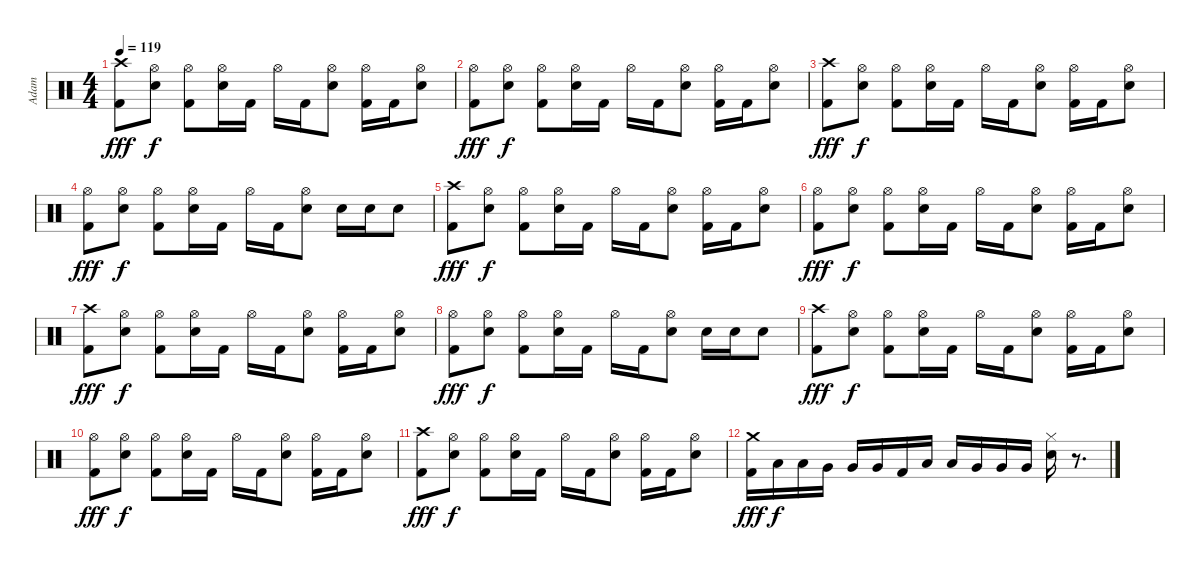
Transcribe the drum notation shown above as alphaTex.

\track ("Adam" "Adam") {instrument percussion}
\staff {score}
\articulation defaults
\ts (4 4)
\tempo 119
\clef neutral
\ks c
("Crash high (hit)" "Kick (hit) 2").8{dy fff} ("Hi-Hat (open)" "Electric Snare (hit)").8{dy f} ("Hi-Hat (open)" "Kick (hit) 2").8 ("Hi-Hat (open)" "Electric Snare (hit)").16 "Kick (hit) 2".16 "Hi-Hat (open)".16 "Kick (hit) 2".16 ("Hi-Hat (open)" "Electric Snare (hit)").8 ("Hi-Hat (open)" "Kick (hit) 2").16 "Kick (hit) 2".16 ("Hi-Hat (open)" "Electric Snare (hit)").8 |
("Hi-Hat (open)" "Kick (hit) 2").8{dy fff} ("Hi-Hat (open)" "Electric Snare (hit)").8{dy f} ("Hi-Hat (open)" "Kick (hit) 2").8 ("Hi-Hat (open)" "Electric Snare (hit)").16 "Kick (hit) 2".16 "Hi-Hat (open)".16 "Kick (hit) 2".16 ("Hi-Hat (open)" "Electric Snare (hit)").8 ("Hi-Hat (open)" "Kick (hit) 2").16 "Kick (hit) 2".16 ("Hi-Hat (open)" "Electric Snare (hit)").8 |
("Crash high (hit)" "Kick (hit) 2").8{dy fff} ("Hi-Hat (open)" "Electric Snare (hit)").8{dy f} ("Hi-Hat (open)" "Kick (hit) 2").8 ("Hi-Hat (open)" "Electric Snare (hit)").16 "Kick (hit) 2".16 "Hi-Hat (open)".16 "Kick (hit) 2".16 ("Hi-Hat (open)" "Electric Snare (hit)").8 ("Hi-Hat (open)" "Kick (hit) 2").16 "Kick (hit) 2".16 ("Hi-Hat (open)" "Electric Snare (hit)").8 |
("Hi-Hat (open)" "Kick (hit) 2").8{dy fff} ("Hi-Hat (open)" "Electric Snare (hit)").8{dy f} ("Hi-Hat (open)" "Kick (hit) 2").8 ("Hi-Hat (open)" "Electric Snare (hit)").16 "Kick (hit) 2".16 "Hi-Hat (open)".16 "Kick (hit) 2".16 ("Hi-Hat (open)" "Electric Snare (hit)").8 "Electric Snare (hit)".16 "Electric Snare (hit)".16 "Electric Snare (hit)".8 |
("Crash high (hit)" "Kick (hit) 2").8{dy fff} ("Hi-Hat (open)" "Electric Snare (hit)").8{dy f} ("Hi-Hat (open)" "Kick (hit) 2").8 ("Hi-Hat (open)" "Electric Snare (hit)").16 "Kick (hit) 2".16 "Hi-Hat (open)".16 "Kick (hit) 2".16 ("Hi-Hat (open)" "Electric Snare (hit)").8 ("Hi-Hat (open)" "Kick (hit) 2").16 "Kick (hit) 2".16 ("Hi-Hat (open)" "Electric Snare (hit)").8 |
("Hi-Hat (open)" "Kick (hit) 2").8{dy fff} ("Hi-Hat (open)" "Electric Snare (hit)").8{dy f} ("Hi-Hat (open)" "Kick (hit) 2").8 ("Hi-Hat (open)" "Electric Snare (hit)").16 "Kick (hit) 2".16 "Hi-Hat (open)".16 "Kick (hit) 2".16 ("Hi-Hat (open)" "Electric Snare (hit)").8 ("Hi-Hat (open)" "Kick (hit) 2").16 "Kick (hit) 2".16 ("Hi-Hat (open)" "Electric Snare (hit)").8 |
("Crash high (hit)" "Kick (hit) 2").8{dy fff} ("Hi-Hat (open)" "Electric Snare (hit)").8{dy f} ("Hi-Hat (open)" "Kick (hit) 2").8 ("Hi-Hat (open)" "Electric Snare (hit)").16 "Kick (hit) 2".16 "Hi-Hat (open)".16 "Kick (hit) 2".16 ("Hi-Hat (open)" "Electric Snare (hit)").8 ("Hi-Hat (open)" "Kick (hit) 2").16 "Kick (hit) 2".16 ("Hi-Hat (open)" "Electric Snare (hit)").8 |
("Hi-Hat (open)" "Kick (hit) 2").8{dy fff} ("Hi-Hat (open)" "Electric Snare (hit)").8{dy f} ("Hi-Hat (open)" "Kick (hit) 2").8 ("Hi-Hat (open)" "Electric Snare (hit)").16 "Kick (hit) 2".16 "Hi-Hat (open)".16 "Kick (hit) 2".16 ("Hi-Hat (open)" "Electric Snare (hit)").8 "Electric Snare (hit)".16 "Electric Snare (hit)".16 "Electric Snare (hit)".8 |
("Crash high (hit)" "Kick (hit) 2").8{dy fff} ("Hi-Hat (open)" "Electric Snare (hit)").8{dy f} ("Hi-Hat (open)" "Kick (hit) 2").8 ("Hi-Hat (open)" "Electric Snare (hit)").16 "Kick (hit) 2".16 "Hi-Hat (open)".16 "Kick (hit) 2".16 ("Hi-Hat (open)" "Electric Snare (hit)").8 ("Hi-Hat (open)" "Kick (hit) 2").16 "Kick (hit) 2".16 ("Hi-Hat (open)" "Electric Snare (hit)").8 |
("Hi-Hat (open)" "Kick (hit) 2").8{dy fff} ("Hi-Hat (open)" "Electric Snare (hit)").8{dy f} ("Hi-Hat (open)" "Kick (hit) 2").8 ("Hi-Hat (open)" "Electric Snare (hit)").16 "Kick (hit) 2".16 "Hi-Hat (open)".16 "Kick (hit) 2".16 ("Hi-Hat (open)" "Electric Snare (hit)").8 ("Hi-Hat (open)" "Kick (hit) 2").16 "Kick (hit) 2".16 ("Hi-Hat (open)" "Electric Snare (hit)").8 |
("Crash high (hit)" "Kick (hit) 2").8{dy fff} ("Hi-Hat (open)" "Electric Snare (hit)").8{dy f} ("Hi-Hat (open)" "Kick (hit) 2").8 ("Hi-Hat (open)" "Electric Snare (hit)").16 "Kick (hit) 2".16 "Hi-Hat (open)".16 "Kick (hit) 2".16 ("Hi-Hat (open)" "Electric Snare (hit)").8 ("Hi-Hat (open)" "Kick (hit) 2").16 "Kick (hit) 2".16 ("Hi-Hat (open)" "Electric Snare (hit)").8 |
("Crash medium (hit)" "Kick (hit) 2").16{dy fff} "Low Tom (hit)".16{dy f} "Low Tom (hit)".16 "Very Low Tom (hit)".16 "Very Low Tom (hit)".16 "Very Low Tom (hit)".16 "Kick (hit) 2".16 "Low Tom (hit)".16 "Low Tom (hit)".16 "Very Low Tom (hit)".16 "Very Low Tom (hit)".16 "Very Low Tom (hit)".16 ("Hi-Hat (closed)" "Electric Snare (hit)").16 r.8{d}
